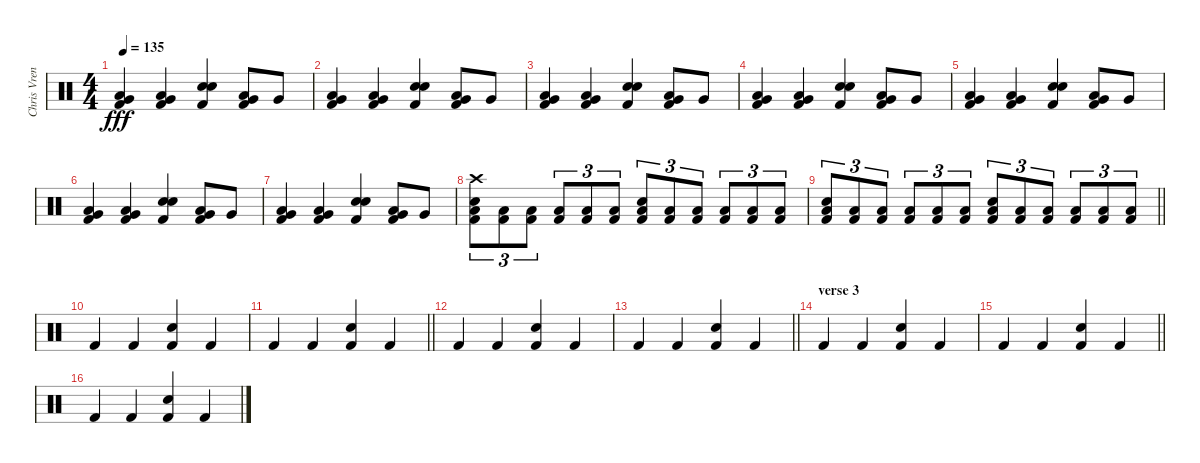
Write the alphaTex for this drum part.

\track ("Chris Vrenna (percussions)" "Chris Vren") {instrument percussion}
\staff {score}
\articulation defaults
\ts (4 4)
\tempo 135
\clef neutral
\ks c
("Very Low Tom (hit)" "Low Tom (hit)" "Kick (hit) 2").4{dy fff} ("Very Low Tom (hit)" "Low Tom (hit)" "Kick (hit) 2").4 ("Snare (hit) 2" "Electric Snare (hit)" "Kick (hit) 2").4 ("Very Low Tom (hit)" "Low Tom (hit)" "Kick (hit) 2").8 "Very Low Tom (hit)".8 |
("Very Low Tom (hit)" "Low Tom (hit)" "Kick (hit) 2").4 ("Very Low Tom (hit)" "Low Tom (hit)" "Kick (hit) 2").4 ("Snare (hit) 2" "Electric Snare (hit)" "Kick (hit) 2").4 ("Very Low Tom (hit)" "Low Tom (hit)" "Kick (hit) 2").8 "Very Low Tom (hit)".8 |
("Very Low Tom (hit)" "Low Tom (hit)" "Kick (hit) 2").4 ("Very Low Tom (hit)" "Low Tom (hit)" "Kick (hit) 2").4 ("Snare (hit) 2" "Electric Snare (hit)" "Kick (hit) 2").4 ("Very Low Tom (hit)" "Low Tom (hit)" "Kick (hit) 2").8 "Very Low Tom (hit)".8 |
("Very Low Tom (hit)" "Low Tom (hit)" "Kick (hit) 2").4 ("Very Low Tom (hit)" "Low Tom (hit)" "Kick (hit) 2").4 ("Snare (hit) 2" "Electric Snare (hit)" "Kick (hit) 2").4 ("Very Low Tom (hit)" "Low Tom (hit)" "Kick (hit) 2").8 "Very Low Tom (hit)".8 |
("Very Low Tom (hit)" "Low Tom (hit)" "Kick (hit) 2").4 ("Very Low Tom (hit)" "Low Tom (hit)" "Kick (hit) 2").4 ("Snare (hit) 2" "Electric Snare (hit)" "Kick (hit) 2").4 ("Very Low Tom (hit)" "Low Tom (hit)" "Kick (hit) 2").8 "Very Low Tom (hit)".8 |
("Very Low Tom (hit)" "Low Tom (hit)" "Kick (hit) 2").4 ("Very Low Tom (hit)" "Low Tom (hit)" "Kick (hit) 2").4 ("Snare (hit) 2" "Electric Snare (hit)" "Kick (hit) 2").4 ("Very Low Tom (hit)" "Low Tom (hit)" "Kick (hit) 2").8 "Very Low Tom (hit)".8 |
("Very Low Tom (hit)" "Low Tom (hit)" "Kick (hit) 2").4 ("Very Low Tom (hit)" "Low Tom (hit)" "Kick (hit) 2").4 ("Snare (hit) 2" "Electric Snare (hit)" "Kick (hit) 2").4 ("Very Low Tom (hit)" "Low Tom (hit)" "Kick (hit) 2").8 "Very Low Tom (hit)".8 |
("Crash high (hit)" "Snare (hit) 2" "Low Tom (hit)" "Kick (hit) 2").8{tu (3 2)} ("Low Tom (hit)" "Kick (hit) 2").8{tu (3 2)} ("Low Tom (hit)" "Kick (hit) 2").8{tu (3 2)} ("Low Tom (hit)" "Kick (hit) 2").8{tu (3 2)} ("Low Tom (hit)" "Kick (hit) 2").8{tu (3 2)} ("Low Tom (hit)" "Kick (hit) 2").8{tu (3 2)} ("Snare (hit) 2" "Low Tom (hit)" "Kick (hit) 2").8{tu (3 2)} ("Low Tom (hit)" "Kick (hit) 2").8{tu (3 2)} ("Low Tom (hit)" "Kick (hit) 2").8{tu (3 2)} ("Low Tom (hit)" "Kick (hit) 2").8{tu (3 2)} ("Low Tom (hit)" "Kick (hit) 2").8{tu (3 2)} ("Low Tom (hit)" "Kick (hit) 2").8{tu (3 2)} |
\barLineRight lightlight
("Snare (hit) 2" "Low Tom (hit)" "Kick (hit) 2").8{tu (3 2)} ("Low Tom (hit)" "Kick (hit) 2").8{tu (3 2)} ("Low Tom (hit)" "Kick (hit) 2").8{tu (3 2)} ("Low Tom (hit)" "Kick (hit) 2").8{tu (3 2)} ("Low Tom (hit)" "Kick (hit) 2").8{tu (3 2)} ("Low Tom (hit)" "Kick (hit) 2").8{tu (3 2)} ("Snare (hit) 2" "Low Tom (hit)" "Kick (hit) 2").8{tu (3 2)} ("Low Tom (hit)" "Kick (hit) 2").8{tu (3 2)} ("Low Tom (hit)" "Kick (hit) 2").8{tu (3 2)} ("Low Tom (hit)" "Kick (hit) 2").8{tu (3 2)} ("Low Tom (hit)" "Kick (hit) 2").8{tu (3 2)} ("Low Tom (hit)" "Kick (hit) 2").8{tu (3 2)} |
"Kick (hit) 2".4 "Kick (hit) 2".4 ("Snare (hit) 2" "Kick (hit) 2").4 "Kick (hit) 2".4 |
\barLineRight lightlight "Kick (hit) 2".4 "Kick (hit) 2".4
("Snare (hit) 2" "Kick (hit) 2").4 "Kick (hit) 2".4 |
"Kick (hit) 2".4 "Kick (hit) 2".4 ("Snare (hit) 2" "Kick (hit) 2").4 "Kick (hit) 2".4 |
\barLineRight lightlight "Kick (hit) 2".4 "Kick (hit) 2".4
("Snare (hit) 2" "Kick (hit) 2").4 "Kick (hit) 2".4 |
\section ("" "verse 3")
"Kick (hit) 2".4 "Kick (hit) 2".4 ("Snare (hit) 2" "Kick (hit) 2").4 "Kick (hit) 2".4 |
\barLineRight lightlight "Kick (hit) 2".4 "Kick (hit) 2".4
("Snare (hit) 2" "Kick (hit) 2").4 "Kick (hit) 2".4 |
"Kick (hit) 2".4 "Kick (hit) 2".4 ("Snare (hit) 2" "Kick (hit) 2").4 "Kick (hit) 2".4
